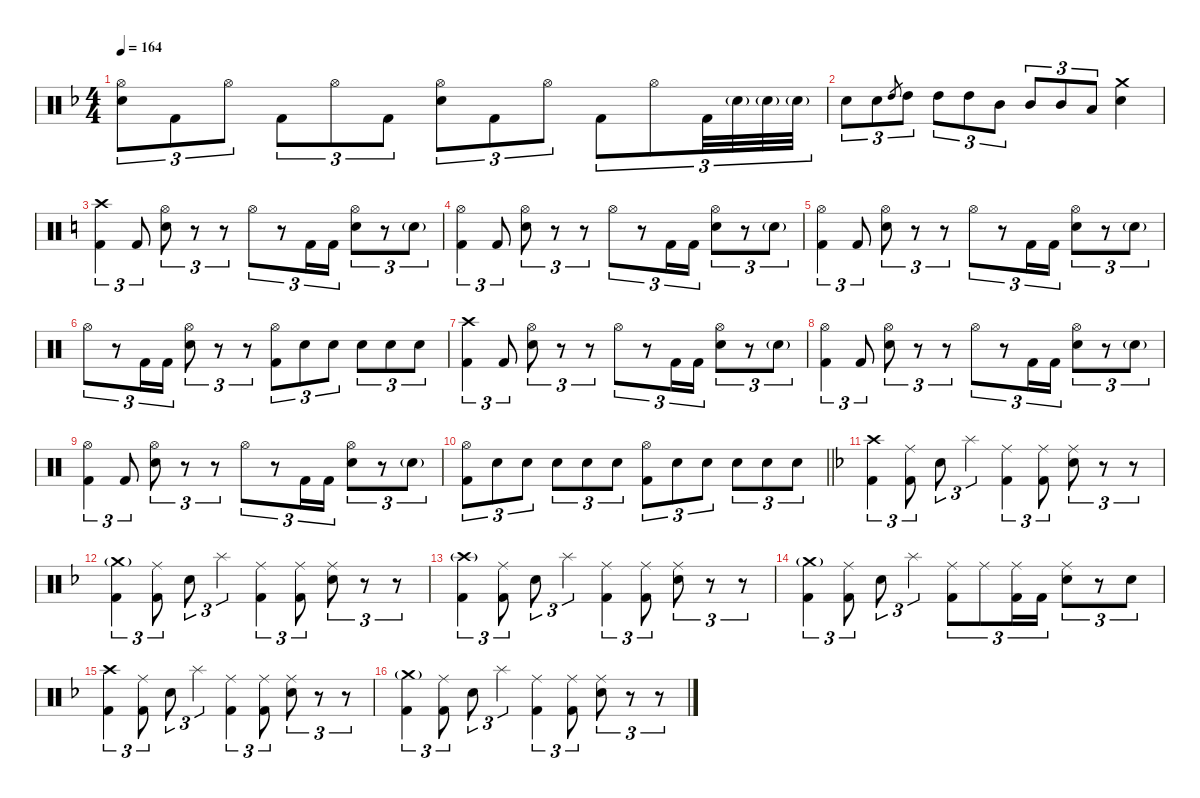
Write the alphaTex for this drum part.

\defaultSystemsLayout 4
\hideDynamics
\bracketExtendMode nobrackets
\singleTrackTrackNamePolicy hidden
\multiTrackTrackNamePolicy hidden
\otherSystemsTrackNameOrientation horizontal
\track ("Drums" "drm.") {defaultSystemsLayout 4 instrument percussion}
\staff {score}
\articulation defaults
\ts (4 4)
\tempo 164
\clef neutral
\ks f
("Snare (hit) 2"{acc forcenatural} "Hi-Hat (open)"{acc forcenatural}).8{tu (3 2) dy fff beam Down} "Kick (hit) 2"{acc forcenatural}.8{tu (3 2) beam Down} "Hi-Hat (open)"{acc forcenatural}.8{tu (3 2) dy mp beam Down} "Kick (hit) 2"{acc forcenatural}.8{tu (3 2) dy fff beam Down} "Hi-Hat (open)"{acc forcenatural}.8{tu (3 2) dy mp beam Down} "Kick (hit) 2"{acc forcenatural}.8{tu (3 2) dy fff beam Down} ("Snare (hit) 2"{acc forcenatural} "Hi-Hat (open)"{acc forcenatural}).8{tu (3 2) beam Down} "Kick (hit) 2"{acc forcenatural}.8{tu (3 2) beam Down} "Hi-Hat (open)"{acc forcenatural}.8{tu (3 2) dy mp beam Down} "Kick (hit) 2"{acc forcenatural}.8{tu (3 2) dy fff beam Down} "Hi-Hat (open)"{acc forcenatural}.8{tu (3 2) dy mp beam Down} "Kick (hit) 2"{acc forcenatural}.32{tu (3 2) dy fff beam Down} "Snare (hit) 2"{g acc forcenatural}.32{tu (3 2) dy mf beam Down} "Snare (hit) 2"{g acc forcenatural}.32{tu (3 2) beam Down} "Snare (hit) 2"{g acc forcenatural}.32{tu (3 2) beam Down} |
"Snare (hit) 2"{acc forcenatural}.8{tu (3 2) dy fff beam Down} "Snare (hit) 2"{acc forcenatural}.8{tu (3 2) beam Down} "High Tom (hit)"{acc forcenatural}.8{gr dy ff beam Up} "High Tom (hit)"{acc forcenatural}.8{tu (3 2) dy fff beam Down} "High Tom (hit)"{acc forcenatural}.8{tu (3 2) beam Down} "High Tom (hit)"{acc forcenatural}.8{tu (3 2) beam Down} "Mid Tom (hit)"{acc forcenatural}.8{tu (3 2) beam Down} "Mid Tom (hit)"{acc forcenatural}.8{tu (3 2) beam Up} "Mid Tom (hit)"{acc forcenatural}.8{tu (3 2) beam Up} "Low Tom (hit)"{acc forcenatural}.8{tu (3 2) beam Up} ("Snare (hit) 2"{acc forcenatural} "Crash medium (hit)"{acc forcenatural}).4{beam Down} |
\ks c
("Kick (hit) 2" "Crash high (hit)").4{tu (3 2) beam Down} "Kick (hit) 2".8{tu (3 2) beam Up} ("Snare (hit) 2" "Hi-Hat (open)").8{tu (3 2) beam Down} r.8{tu (3 2) beam Down} r.8{tu (3 2) beam Down} "Hi-Hat (open)".8{tu (3 2) dy mp beam Down} r.8{tu (3 2) beam Down} "Kick (hit) 2".16{tu (3 2) dy fff beam Down} "Kick (hit) 2".16{tu (3 2) beam Down} ("Snare (hit) 2" "Hi-Hat (open)").8{tu (3 2) beam Down} r.8{tu (3 2) beam Down} "Snare (hit) 2"{g}.8{tu (3 2) beam Down} |
("Kick (hit) 2" "Hi-Hat (open)").4{tu (3 2) beam Down} "Kick (hit) 2".8{tu (3 2) beam Up} ("Snare (hit) 2" "Hi-Hat (open)").8{tu (3 2) beam Down} r.8{tu (3 2) beam Down} r.8{tu (3 2) beam Down} "Hi-Hat (open)".8{tu (3 2) dy mp beam Down} r.8{tu (3 2) beam Down} "Kick (hit) 2".16{tu (3 2) dy fff beam Down} "Kick (hit) 2".16{tu (3 2) beam Down} ("Snare (hit) 2" "Hi-Hat (open)").8{tu (3 2) beam Down} r.8{tu (3 2) beam Down} "Snare (hit) 2"{g}.8{tu (3 2) beam Down} |
("Kick (hit) 2" "Hi-Hat (open)").4{tu (3 2) beam Down} "Kick (hit) 2".8{tu (3 2) beam Up} ("Snare (hit) 2" "Hi-Hat (open)").8{tu (3 2) beam Down} r.8{tu (3 2) beam Down} r.8{tu (3 2) beam Down} "Hi-Hat (open)".8{tu (3 2) dy mp beam Down} r.8{tu (3 2) beam Down} "Kick (hit) 2".16{tu (3 2) dy fff beam Down} "Kick (hit) 2".16{tu (3 2) beam Down} ("Snare (hit) 2" "Hi-Hat (open)").8{tu (3 2) beam Down} r.8{tu (3 2) beam Down} "Snare (hit) 2"{g}.8{tu (3 2) beam Down} |
"Hi-Hat (open)".8{tu (3 2) dy mp beam Down} r.8{tu (3 2) beam Down} "Kick (hit) 2".16{tu (3 2) dy fff beam Down} "Kick (hit) 2".16{tu (3 2) beam Down} ("Snare (hit) 2" "Hi-Hat (open)").8{tu (3 2) beam Down} r.8{tu (3 2) beam Down} r.8{tu (3 2) beam Down} ("Kick (hit) 2" "Hi-Hat (open)").8{tu (3 2) beam Down} "Snare (hit) 2".8{tu (3 2) beam Down} "Snare (hit) 2".8{tu (3 2) beam Down} "Snare (hit) 2".8{tu (3 2) beam Down} "Snare (hit) 2".8{tu (3 2) beam Down} "Snare (hit) 2".8{tu (3 2) beam Down} |
("Kick (hit) 2" "Crash high (hit)").4{tu (3 2) beam Down} "Kick (hit) 2".8{tu (3 2) beam Up} ("Snare (hit) 2" "Hi-Hat (open)").8{tu (3 2) beam Down} r.8{tu (3 2) beam Down} r.8{tu (3 2) beam Down} "Hi-Hat (open)".8{tu (3 2) dy mp beam Down} r.8{tu (3 2) beam Down} "Kick (hit) 2".16{tu (3 2) dy fff beam Down} "Kick (hit) 2".16{tu (3 2) beam Down} ("Snare (hit) 2" "Hi-Hat (open)").8{tu (3 2) beam Down} r.8{tu (3 2) beam Down} "Snare (hit) 2"{g}.8{tu (3 2) beam Down} |
("Kick (hit) 2" "Hi-Hat (open)").4{tu (3 2) beam Down} "Kick (hit) 2".8{tu (3 2) beam Up} ("Snare (hit) 2" "Hi-Hat (open)").8{tu (3 2) beam Down} r.8{tu (3 2) beam Down} r.8{tu (3 2) beam Down} "Hi-Hat (open)".8{tu (3 2) dy mp beam Down} r.8{tu (3 2) beam Down} "Kick (hit) 2".16{tu (3 2) dy fff beam Down} "Kick (hit) 2".16{tu (3 2) beam Down} ("Snare (hit) 2" "Hi-Hat (open)").8{tu (3 2) beam Down} r.8{tu (3 2) beam Down} "Snare (hit) 2"{g}.8{tu (3 2) beam Down} |
("Kick (hit) 2" "Hi-Hat (open)").4{tu (3 2) beam Down} "Kick (hit) 2".8{tu (3 2) beam Up} ("Snare (hit) 2" "Hi-Hat (open)").8{tu (3 2) beam Down} r.8{tu (3 2) beam Down} r.8{tu (3 2) beam Down} "Hi-Hat (open)".8{tu (3 2) dy mp beam Down} r.8{tu (3 2) beam Down} "Kick (hit) 2".16{tu (3 2) dy fff beam Down} "Kick (hit) 2".16{tu (3 2) beam Down} ("Snare (hit) 2" "Hi-Hat (open)").8{tu (3 2) beam Down} r.8{tu (3 2) beam Down} "Snare (hit) 2"{g}.8{tu (3 2) beam Down} |
\barLineRight lightlight
("Kick (hit) 2" "Hi-Hat (open)").8{tu (3 2) beam Down} "Snare (hit) 2".8{tu (3 2) dy mp beam Down} "Snare (hit) 2".8{tu (3 2) dy mf beam Down} "Snare (hit) 2".8{tu (3 2) dy f beam Down} "Snare (hit) 2".8{tu (3 2) dy ff beam Down} "Snare (hit) 2".8{tu (3 2) dy fff beam Down} ("Kick (hit) 2" "Hi-Hat (open)").8{tu (3 2) beam Down} "Snare (hit) 2".8{tu (3 2) dy mp beam Down} "Snare (hit) 2".8{tu (3 2) dy mf beam Down} "Snare (hit) 2".8{tu (3 2) dy f beam Down} "Snare (hit) 2".8{tu (3 2) dy ff beam Down} "Snare (hit) 2".8{tu (3 2) dy fff beam Down} |
\ks f
("Kick (hit) 2"{acc forcenatural} "Crash high (hit)"{acc forcenatural}).4{tu (3 2) beam Down} ("Kick (hit) 2"{acc forcenatural} "Ride (middle)"{acc forcenatural}).8{tu (3 2) beam Down} "Snare (hit) 2"{acc forcenatural}.8{tu (3 2) beam Down} "Splash (hit)"{acc forcenatural}.4{tu (3 2) dy f beam Down} ("Kick (hit) 2"{acc forcenatural} "Ride (middle)"{acc forcenatural}).4{tu (3 2) dy fff beam Down} ("Kick (hit) 2"{acc forcenatural} "Ride (middle)"{acc forcenatural}).8{tu (3 2) beam Down} ("Snare (hit) 2"{acc forcenatural} "Ride (middle)"{acc forcenatural}).8{tu (3 2) beam Down} r.8{tu (3 2) beam Down} r.8{tu (3 2) beam Down} |
("Kick (hit) 2"{acc forcenatural} "Crash medium (hit)"{g acc forcenatural}).4{tu (3 2) beam Down} ("Kick (hit) 2"{acc forcenatural} "Ride (middle)"{acc forcenatural}).8{tu (3 2) beam Down} "Snare (hit) 2"{acc forcenatural}.8{tu (3 2) beam Down} "Splash (hit)"{acc forcenatural}.4{tu (3 2) dy f beam Down} ("Kick (hit) 2"{acc forcenatural} "Ride (middle)"{acc forcenatural}).4{tu (3 2) dy fff beam Down} ("Kick (hit) 2"{acc forcenatural} "Ride (middle)"{acc forcenatural}).8{tu (3 2) beam Down} ("Snare (hit) 2"{acc forcenatural} "Ride (middle)"{acc forcenatural}).8{tu (3 2) beam Down} r.8{tu (3 2) beam Down} r.8{tu (3 2) beam Down} |
("Kick (hit) 2"{acc forcenatural} "Crash high (hit)"{g acc forcenatural}).4{tu (3 2) beam Down} ("Kick (hit) 2"{acc forcenatural} "Ride (middle)"{acc forcenatural}).8{tu (3 2) beam Down} "Snare (hit) 2"{acc forcenatural}.8{tu (3 2) beam Down} "Splash (hit)"{acc forcenatural}.4{tu (3 2) dy f beam Down} ("Kick (hit) 2"{acc forcenatural} "Ride (middle)"{acc forcenatural}).4{tu (3 2) dy fff beam Down} ("Kick (hit) 2"{acc forcenatural} "Ride (middle)"{acc forcenatural}).8{tu (3 2) beam Down} ("Snare (hit) 2"{acc forcenatural} "Ride (middle)"{acc forcenatural}).8{tu (3 2) beam Down} r.8{tu (3 2) beam Down} r.8{tu (3 2) beam Down} |
("Kick (hit) 2"{acc forcenatural} "Crash medium (hit)"{g acc forcenatural}).4{tu (3 2) beam Down} ("Kick (hit) 2"{acc forcenatural} "Ride (middle)"{acc forcenatural}).8{tu (3 2) beam Down} "Snare (hit) 2"{acc forcenatural}.8{tu (3 2) beam Down} "Splash (hit)"{acc forcenatural}.4{tu (3 2) dy f beam Down} ("Kick (hit) 2"{acc forcenatural} "Ride (middle)"{acc forcenatural}).8{tu (3 2) dy fff beam Down} "Ride (middle)"{acc forcenatural}.8{tu (3 2) dy mp beam Down} ("Kick (hit) 2"{acc forcenatural} "Ride (middle)"{acc forcenatural}).16{tu (3 2) dy fff beam Down} "Kick (hit) 2"{acc forcenatural}.16{tu (3 2) beam Down} ("Snare (hit) 2"{acc forcenatural} "Ride (middle)"{acc forcenatural}).8{tu (3 2) beam Down} r.8{tu (3 2) beam Down} "Snare (hit) 2"{acc forcenatural}.8{tu (3 2) dy ff beam Down} |
("Kick (hit) 2"{acc forcenatural} "Crash high (hit)"{acc forcenatural}).4{tu (3 2) dy fff beam Down} ("Kick (hit) 2"{acc forcenatural} "Ride (middle)"{acc forcenatural}).8{tu (3 2) beam Down} "Snare (hit) 2"{acc forcenatural}.8{tu (3 2) beam Down} "Splash (hit)"{acc forcenatural}.4{tu (3 2) dy f beam Down} ("Kick (hit) 2"{acc forcenatural} "Ride (middle)"{acc forcenatural}).4{tu (3 2) dy fff beam Down} ("Kick (hit) 2"{acc forcenatural} "Ride (middle)"{acc forcenatural}).8{tu (3 2) beam Down} ("Snare (hit) 2"{acc forcenatural} "Ride (middle)"{acc forcenatural}).8{tu (3 2) beam Down} r.8{tu (3 2) beam Down} r.8{tu (3 2) beam Down} |
("Kick (hit) 2"{acc forcenatural} "Crash medium (hit)"{g acc forcenatural}).4{tu (3 2) beam Down} ("Kick (hit) 2"{acc forcenatural} "Ride (middle)"{acc forcenatural}).8{tu (3 2) beam Down} "Snare (hit) 2"{acc forcenatural}.8{tu (3 2) beam Down} "Splash (hit)"{acc forcenatural}.4{tu (3 2) dy f beam Down} ("Kick (hit) 2"{acc forcenatural} "Ride (middle)"{acc forcenatural}).4{tu (3 2) dy fff beam Down} ("Kick (hit) 2"{acc forcenatural} "Ride (middle)"{acc forcenatural}).8{tu (3 2) beam Down} ("Snare (hit) 2"{acc forcenatural} "Ride (middle)"{acc forcenatural}).8{tu (3 2) beam Down} r.8{tu (3 2) beam Down} r.8{tu (3 2) beam Down}
